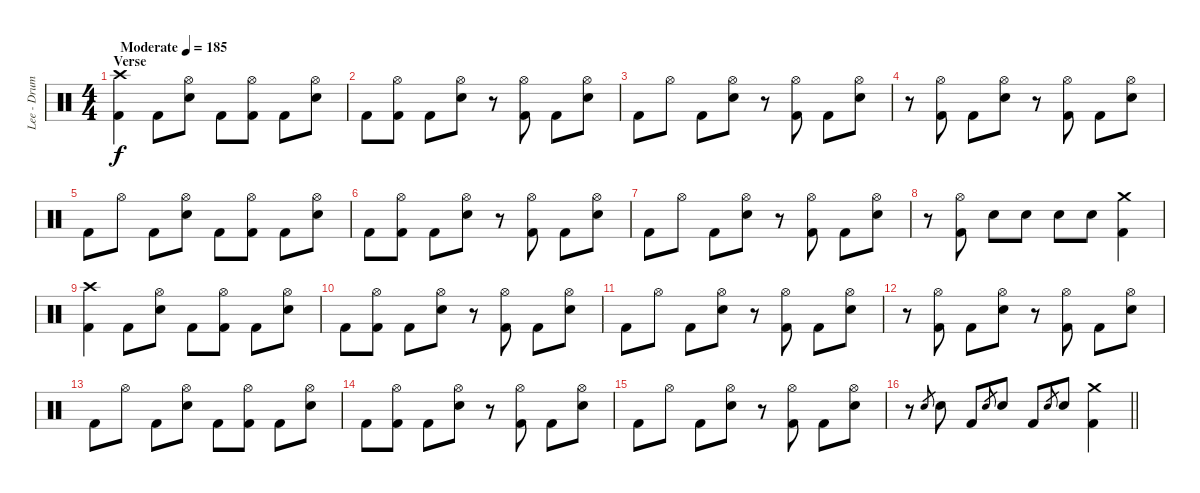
\track ("Lee - Drums" "Lee - Drum") {instrument percussion}
\staff {score}
\articulation defaults
\ts (4 4)
\section ("" "Verse")
\tempo (185 "Moderate")
\clef neutral
\ks c
("Crash high (hit)" "Kick (hit) 2").4{dy f} "Kick (hit) 2".8 ("Hi-Hat (open)" "Snare (hit) 2").8 "Kick (hit) 2".8 ("Hi-Hat (open)" "Kick (hit) 2").8 "Kick (hit) 2".8 ("Hi-Hat (open)" "Snare (hit) 2").8 |
"Kick (hit) 2".8 ("Hi-Hat (open)" "Kick (hit) 2").8 "Kick (hit) 2".8 ("Hi-Hat (open)" "Snare (hit) 2").8 r.8 ("Hi-Hat (open)" "Kick (hit) 2").8 "Kick (hit) 2".8 ("Hi-Hat (open)" "Snare (hit) 2").8 |
"Kick (hit) 2".8 "Hi-Hat (open)".8 "Kick (hit) 2".8 ("Hi-Hat (open)" "Snare (hit) 2").8 r.8 ("Hi-Hat (open)" "Kick (hit) 2").8 "Kick (hit) 2".8 ("Hi-Hat (open)" "Snare (hit) 2").8 |
r.8 ("Hi-Hat (open)" "Kick (hit) 2").8 "Kick (hit) 2".8 ("Hi-Hat (open)" "Snare (hit) 2").8 r.8 ("Hi-Hat (open)" "Kick (hit) 2").8 "Kick (hit) 2".8 ("Hi-Hat (open)" "Snare (hit) 2").8 |
"Kick (hit) 2".8 "Hi-Hat (open)".8 "Kick (hit) 2".8 ("Hi-Hat (open)" "Snare (hit) 2").8 "Kick (hit) 2".8 ("Hi-Hat (open)" "Kick (hit) 2").8 "Kick (hit) 2".8 ("Hi-Hat (open)" "Snare (hit) 2").8 |
"Kick (hit) 2".8 ("Hi-Hat (open)" "Kick (hit) 2").8 "Kick (hit) 2".8 ("Hi-Hat (open)" "Snare (hit) 2").8 r.8 ("Hi-Hat (open)" "Kick (hit) 2").8 "Kick (hit) 2".8 ("Hi-Hat (open)" "Snare (hit) 2").8 |
"Kick (hit) 2".8 "Hi-Hat (open)".8 "Kick (hit) 2".8 ("Hi-Hat (open)" "Snare (hit) 2").8 r.8 ("Hi-Hat (open)" "Kick (hit) 2").8 "Kick (hit) 2".8 ("Hi-Hat (open)" "Snare (hit) 2").8 |
r.8 ("Hi-Hat (open)" "Kick (hit) 2").8 "Snare (hit) 2".8 "Snare (hit) 2".8 "Snare (hit) 2".8 "Snare (hit) 2".8 ("Crash medium (hit)" "Kick (hit) 2").4 |
("Crash high (hit)" "Kick (hit) 2").4 "Kick (hit) 2".8 ("Hi-Hat (open)" "Snare (hit) 2").8 "Kick (hit) 2".8 ("Hi-Hat (open)" "Kick (hit) 2").8 "Kick (hit) 2".8 ("Hi-Hat (open)" "Snare (hit) 2").8 |
"Kick (hit) 2".8 ("Hi-Hat (open)" "Kick (hit) 2").8 "Kick (hit) 2".8 ("Hi-Hat (open)" "Snare (hit) 2").8 r.8 ("Hi-Hat (open)" "Kick (hit) 2").8 "Kick (hit) 2".8 ("Hi-Hat (open)" "Snare (hit) 2").8 |
"Kick (hit) 2".8 "Hi-Hat (open)".8 "Kick (hit) 2".8 ("Hi-Hat (open)" "Snare (hit) 2").8 r.8 ("Hi-Hat (open)" "Kick (hit) 2").8 "Kick (hit) 2".8 ("Hi-Hat (open)" "Snare (hit) 2").8 |
r.8 ("Hi-Hat (open)" "Kick (hit) 2").8 "Kick (hit) 2".8 ("Hi-Hat (open)" "Snare (hit) 2").8 r.8 ("Hi-Hat (open)" "Kick (hit) 2").8 "Kick (hit) 2".8 ("Hi-Hat (open)" "Snare (hit) 2").8 |
"Kick (hit) 2".8 "Hi-Hat (open)".8 "Kick (hit) 2".8 ("Hi-Hat (open)" "Snare (hit) 2").8 "Kick (hit) 2".8 ("Hi-Hat (open)" "Kick (hit) 2").8 "Kick (hit) 2".8 ("Hi-Hat (open)" "Snare (hit) 2").8 |
"Kick (hit) 2".8 ("Hi-Hat (open)" "Kick (hit) 2").8 "Kick (hit) 2".8 ("Hi-Hat (open)" "Snare (hit) 2").8 r.8 ("Hi-Hat (open)" "Kick (hit) 2").8 "Kick (hit) 2".8 ("Hi-Hat (open)" "Snare (hit) 2").8 |
"Kick (hit) 2".8 "Hi-Hat (open)".8 "Kick (hit) 2".8 ("Hi-Hat (open)" "Snare (hit) 2").8 r.8 ("Hi-Hat (open)" "Kick (hit) 2").8 "Kick (hit) 2".8 ("Hi-Hat (open)" "Snare (hit) 2").8 |
\barLineRight lightlight
r.8 "Snare (hit) 2".8{gr} "Snare (hit) 2".8 "Kick (hit) 2".8 "Snare (hit) 2".8{gr} "Snare (hit) 2".8 "Kick (hit) 2".8 "Snare (hit) 2".8{gr} "Snare (hit) 2".8 ("Crash medium (hit)" "Kick (hit) 2").4
